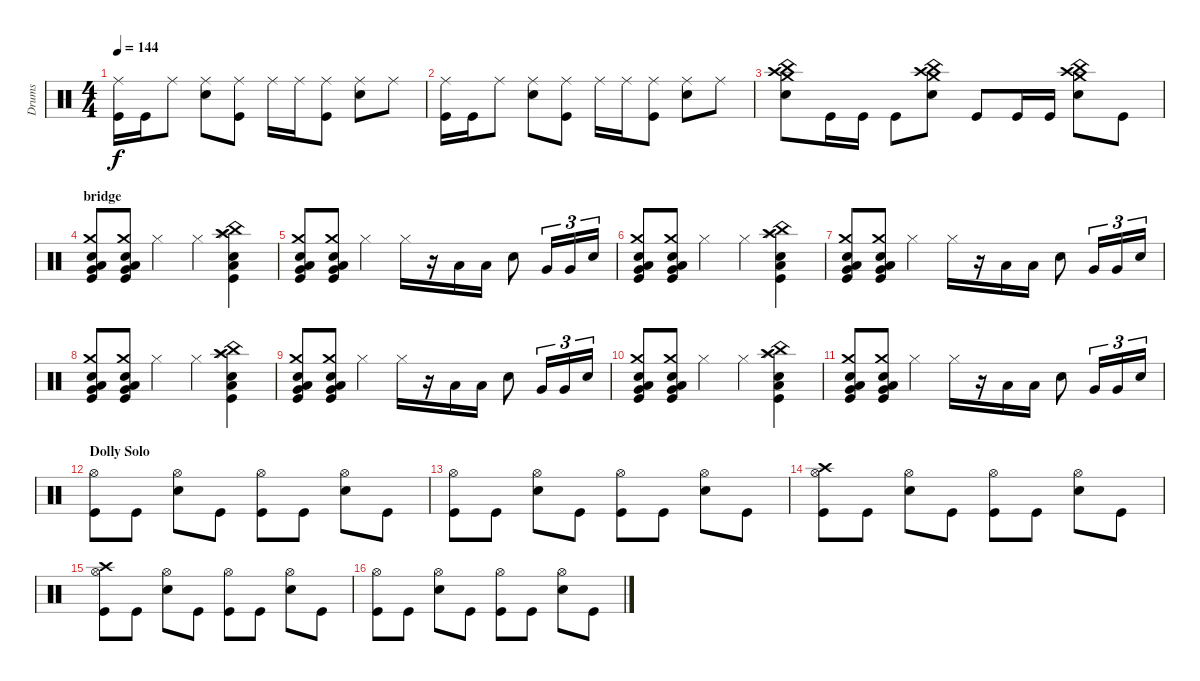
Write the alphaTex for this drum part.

\track ("Drums" "Drums") {instrument percussion}
\staff {score}
\articulation defaults
\ts (4 4)
\tempo 144
\clef neutral
\ks c
("Ride (middle)" "Kick (hit)").16{dy f} "Kick (hit)".16 "Ride (middle)".8 ("Ride (middle)" "Snare (hit) 2").8 ("Ride (middle)" "Kick (hit)").8 "Ride (middle)".16 "Ride (middle)".16 ("Ride (middle)" "Kick (hit)").8 ("Ride (middle)" "Snare (hit) 2").8 "Ride (middle)".8 |
("Ride (middle)" "Kick (hit)").16 "Kick (hit)".16 "Ride (middle)".8 ("Ride (middle)" "Snare (hit) 2").8 ("Ride (middle)" "Kick (hit)").8 "Ride (middle)".16 "Ride (middle)".16 ("Ride (middle)" "Kick (hit)").8 ("Ride (middle)" "Snare (hit) 2").8 "Ride (middle)".8 |
("China (hit)" "Crash medium (hit)" "Crash high (hit)" "Snare (hit) 2").8 "Kick (hit)".16 "Kick (hit)".16 "Kick (hit)".8 ("China (hit)" "Crash medium (hit)" "Crash high (hit)" "Snare (hit) 2").8 "Kick (hit)".8 "Kick (hit)".16 "Kick (hit)".16 ("China (hit)" "Crash medium (hit)" "Crash high (hit)" "Snare (hit) 2").8 "Kick (hit)".8 |
\section ("" "bridge")
("Crash medium (hit)" "Very Low Tom (hit)" "Low Tom (hit)" "Snare (hit) 2" "Kick (hit)").8 ("Crash medium (hit)" "Very Low Tom (hit)" "Low Tom (hit)" "Snare (hit) 2" "Kick (hit)").8 "Hi-Hat (closed)".4 "Hi-Hat (closed)".4 ("Crash high (hit)" "Splash (hit)" "China (hit)" "Low Tom (hit)" "Snare (hit) 2" "Kick (hit)").4 |
("Crash medium (hit)" "Very Low Tom (hit)" "Low Tom (hit)" "Snare (hit) 2" "Kick (hit)").8 ("Crash medium (hit)" "Very Low Tom (hit)" "Low Tom (hit)" "Snare (hit) 2" "Kick (hit)").8 "Hi-Hat (closed)".4 "Hi-Hat (closed)".16 r.16 "Low Tom (hit)".16 "Low Tom (hit)".16 "Snare (hit) 2".8 "Very Low Tom (hit)".16{tu (3 2)} "Very Low Tom (hit)".16{tu (3 2)} "Snare (hit) 2".16{tu (3 2)} |
("Crash medium (hit)" "Very Low Tom (hit)" "Low Tom (hit)" "Snare (hit) 2" "Kick (hit)").8 ("Crash medium (hit)" "Very Low Tom (hit)" "Low Tom (hit)" "Snare (hit) 2" "Kick (hit)").8 "Hi-Hat (closed)".4 "Hi-Hat (closed)".4 ("Crash high (hit)" "Splash (hit)" "China (hit)" "Low Tom (hit)" "Snare (hit) 2" "Kick (hit)").4 |
("Crash medium (hit)" "Very Low Tom (hit)" "Low Tom (hit)" "Snare (hit) 2" "Kick (hit)").8 ("Crash medium (hit)" "Very Low Tom (hit)" "Low Tom (hit)" "Snare (hit) 2" "Kick (hit)").8 "Hi-Hat (closed)".4 "Hi-Hat (closed)".16 r.16 "Low Tom (hit)".16 "Low Tom (hit)".16 "Snare (hit) 2".8 "Very Low Tom (hit)".16{tu (3 2)} "Very Low Tom (hit)".16{tu (3 2)} "Snare (hit) 2".16{tu (3 2)} |
("Crash medium (hit)" "Very Low Tom (hit)" "Low Tom (hit)" "Snare (hit) 2" "Kick (hit)").8 ("Crash medium (hit)" "Very Low Tom (hit)" "Low Tom (hit)" "Snare (hit) 2" "Kick (hit)").8 "Hi-Hat (closed)".4 "Hi-Hat (closed)".4 ("Crash high (hit)" "Splash (hit)" "China (hit)" "Low Tom (hit)" "Snare (hit) 2" "Kick (hit)").4 |
("Crash medium (hit)" "Very Low Tom (hit)" "Low Tom (hit)" "Snare (hit) 2" "Kick (hit)").8 ("Crash medium (hit)" "Very Low Tom (hit)" "Low Tom (hit)" "Snare (hit) 2" "Kick (hit)").8 "Hi-Hat (closed)".4 "Hi-Hat (closed)".16 r.16 "Low Tom (hit)".16 "Low Tom (hit)".16 "Snare (hit) 2".8 "Very Low Tom (hit)".16{tu (3 2)} "Very Low Tom (hit)".16{tu (3 2)} "Snare (hit) 2".16{tu (3 2)} |
("Crash medium (hit)" "Very Low Tom (hit)" "Low Tom (hit)" "Snare (hit) 2" "Kick (hit)").8 ("Crash medium (hit)" "Very Low Tom (hit)" "Low Tom (hit)" "Snare (hit) 2" "Kick (hit)").8 "Hi-Hat (closed)".4 "Hi-Hat (closed)".4 ("Crash high (hit)" "Splash (hit)" "China (hit)" "Low Tom (hit)" "Snare (hit) 2" "Kick (hit)").4 |
("Crash medium (hit)" "Very Low Tom (hit)" "Low Tom (hit)" "Snare (hit) 2" "Kick (hit)").8 ("Crash medium (hit)" "Very Low Tom (hit)" "Low Tom (hit)" "Snare (hit) 2" "Kick (hit)").8 "Hi-Hat (closed)".4 "Hi-Hat (closed)".16 r.16 "Low Tom (hit)".16 "Low Tom (hit)".16 "Snare (hit) 2".8 "Very Low Tom (hit)".16{tu (3 2)} "Very Low Tom (hit)".16{tu (3 2)} "Snare (hit) 2".16{tu (3 2)} |
\section ("" "Dolly Solo")
("Hi-Hat (open)" "Kick (hit)").8 "Kick (hit)".8 ("Hi-Hat (open)" "Snare (hit) 2").8 "Kick (hit)".8 ("Hi-Hat (open)" "Kick (hit)").8 "Kick (hit)".8 ("Hi-Hat (open)" "Snare (hit) 2").8 "Kick (hit)".8 |
("Hi-Hat (open)" "Kick (hit)").8 "Kick (hit)".8 ("Hi-Hat (open)" "Snare (hit) 2").8 "Kick (hit)".8 ("Hi-Hat (open)" "Kick (hit)").8 "Kick (hit)".8 ("Hi-Hat (open)" "Snare (hit) 2").8 "Kick (hit)".8 |
("Hi-Hat (open)" "Crash high (hit)" "Kick (hit)").8 "Kick (hit)".8 ("Hi-Hat (open)" "Snare (hit) 2").8 "Kick (hit)".8 ("Hi-Hat (open)" "Kick (hit)").8 "Kick (hit)".8 ("Hi-Hat (open)" "Snare (hit) 2").8 "Kick (hit)".8 |
("Hi-Hat (open)" "Crash high (hit)" "Kick (hit)").8 "Kick (hit)".8 ("Hi-Hat (open)" "Snare (hit) 2").8 "Kick (hit)".8 ("Hi-Hat (open)" "Kick (hit)").8 "Kick (hit)".8 ("Hi-Hat (open)" "Snare (hit) 2").8 "Kick (hit)".8 |
("Hi-Hat (open)" "Kick (hit)").8 "Kick (hit)".8 ("Hi-Hat (open)" "Snare (hit) 2").8 "Kick (hit)".8 ("Hi-Hat (open)" "Kick (hit)").8 "Kick (hit)".8 ("Hi-Hat (open)" "Snare (hit) 2").8 "Kick (hit)".8
